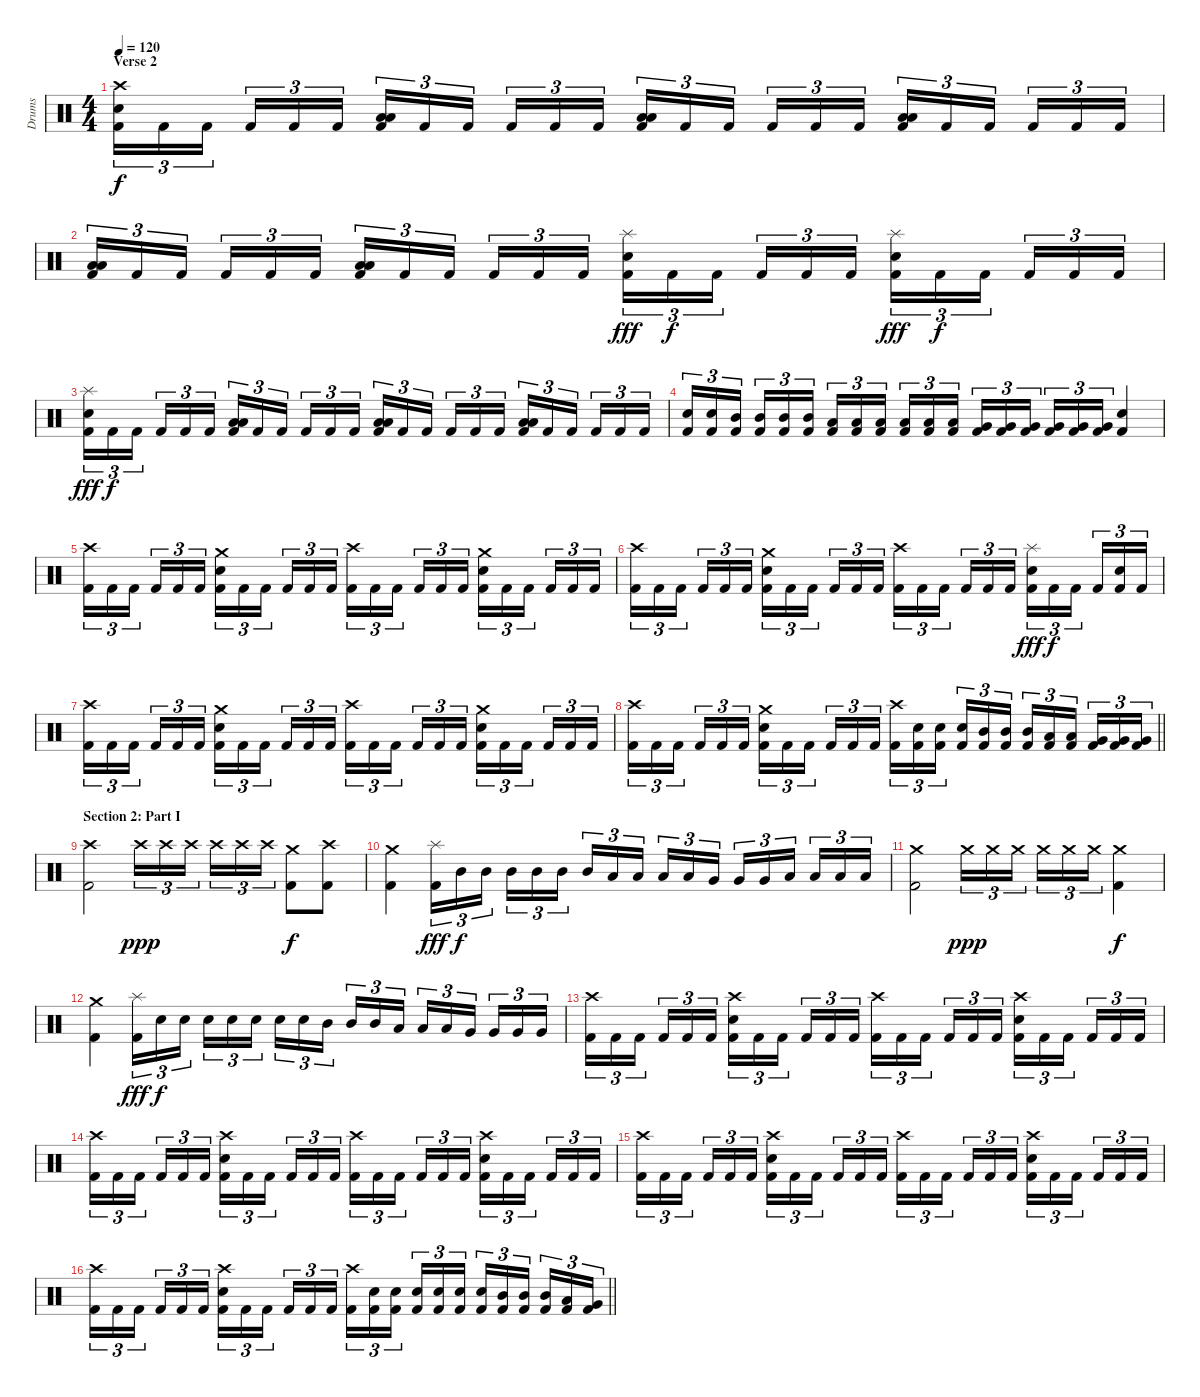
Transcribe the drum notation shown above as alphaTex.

\track ("Drums" "Drums") {instrument percussion}
\staff {score}
\articulation defaults
\ts (4 4)
\section ("" "Verse 2")
\tempo 120
\clef neutral
\ks c
("Crash high (hit)" "Electric Snare (hit)" "Kick (hit) 2").16{tu (3 2) dy f} "Kick (hit) 2".16{tu (3 2)} "Kick (hit) 2".16{tu (3 2) beam splitsecondary} "Kick (hit) 2".16{tu (3 2)} "Kick (hit) 2".16{tu (3 2)} "Kick (hit) 2".16{tu (3 2)} ("Low Tom (hit)" "Low Tom (hit)" "Kick (hit) 2").16{tu (3 2) bd 30} "Kick (hit) 2".16{tu (3 2)} "Kick (hit) 2".16{tu (3 2) beam splitsecondary} "Kick (hit) 2".16{tu (3 2)} "Kick (hit) 2".16{tu (3 2)} "Kick (hit) 2".16{tu (3 2)} ("Low Tom (hit)" "Low Tom (hit)" "Kick (hit) 2").16{tu (3 2) bd 30} "Kick (hit) 2".16{tu (3 2)} "Kick (hit) 2".16{tu (3 2) beam splitsecondary} "Kick (hit) 2".16{tu (3 2)} "Kick (hit) 2".16{tu (3 2)} "Kick (hit) 2".16{tu (3 2)} ("Low Tom (hit)" "Low Tom (hit)" "Kick (hit) 2").16{tu (3 2) bd 30} "Kick (hit) 2".16{tu (3 2)} "Kick (hit) 2".16{tu (3 2) beam splitsecondary} "Kick (hit) 2".16{tu (3 2)} "Kick (hit) 2".16{tu (3 2)} "Kick (hit) 2".16{tu (3 2)} |
("Low Tom (hit)" "Low Tom (hit)" "Kick (hit) 2").16{tu (3 2) bd 30} "Kick (hit) 2".16{tu (3 2)} "Kick (hit) 2".16{tu (3 2) beam splitsecondary} "Kick (hit) 2".16{tu (3 2)} "Kick (hit) 2".16{tu (3 2)} "Kick (hit) 2".16{tu (3 2)} ("Low Tom (hit)" "Low Tom (hit)" "Kick (hit) 2").16{tu (3 2) bd 30} "Kick (hit) 2".16{tu (3 2)} "Kick (hit) 2".16{tu (3 2) beam splitsecondary} "Kick (hit) 2".16{tu (3 2)} "Kick (hit) 2".16{tu (3 2)} "Kick (hit) 2".16{tu (3 2)} ("Splash (hit)" "Electric Snare (hit)" "Kick (hit) 2").16{tu (3 2) dy fff} "Kick (hit) 2".16{tu (3 2) dy f} "Kick (hit) 2".16{tu (3 2) beam splitsecondary} "Kick (hit) 2".16{tu (3 2)} "Kick (hit) 2".16{tu (3 2)} "Kick (hit) 2".16{tu (3 2)} ("Splash (hit)" "Electric Snare (hit)" "Kick (hit) 2").16{tu (3 2) dy fff} "Kick (hit) 2".16{tu (3 2) dy f} "Kick (hit) 2".16{tu (3 2) beam splitsecondary} "Kick (hit) 2".16{tu (3 2)} "Kick (hit) 2".16{tu (3 2)} "Kick (hit) 2".16{tu (3 2)} |
("Splash (hit)" "Electric Snare (hit)" "Kick (hit) 2").16{tu (3 2) dy fff} "Kick (hit) 2".16{tu (3 2) dy f} "Kick (hit) 2".16{tu (3 2) beam splitsecondary} "Kick (hit) 2".16{tu (3 2)} "Kick (hit) 2".16{tu (3 2)} "Kick (hit) 2".16{tu (3 2)} ("Low Tom (hit)" "Low Tom (hit)" "Kick (hit) 2").16{tu (3 2) bd 30} "Kick (hit) 2".16{tu (3 2)} "Kick (hit) 2".16{tu (3 2) beam splitsecondary} "Kick (hit) 2".16{tu (3 2)} "Kick (hit) 2".16{tu (3 2)} "Kick (hit) 2".16{tu (3 2)} ("Low Tom (hit)" "Low Tom (hit)" "Kick (hit) 2").16{tu (3 2) bd 30} "Kick (hit) 2".16{tu (3 2)} "Kick (hit) 2".16{tu (3 2) beam splitsecondary} "Kick (hit) 2".16{tu (3 2)} "Kick (hit) 2".16{tu (3 2)} "Kick (hit) 2".16{tu (3 2)} ("Low Tom (hit)" "Low Tom (hit)" "Kick (hit) 2").16{tu (3 2) bd 30} "Kick (hit) 2".16{tu (3 2)} "Kick (hit) 2".16{tu (3 2) beam splitsecondary} "Kick (hit) 2".16{tu (3 2)} "Kick (hit) 2".16{tu (3 2)} "Kick (hit) 2".16{tu (3 2)} |
("Electric Snare (hit)" "Kick (hit) 2").16{tu (3 2)} ("Electric Snare (hit)" "Kick (hit) 2").16{tu (3 2)} ("Mid Tom (hit)" "Kick (hit) 2").16{tu (3 2) beam splitsecondary} ("Mid Tom (hit)" "Kick (hit) 2").16{tu (3 2)} ("Mid Tom (hit)" "Kick (hit) 2").16{tu (3 2)} ("Mid Tom (hit)" "Kick (hit) 2").16{tu (3 2)} ("Low Tom (hit)" "Kick (hit) 2").16{tu (3 2)} ("Low Tom (hit)" "Kick (hit) 2").16{tu (3 2)} ("Low Tom (hit)" "Kick (hit) 2").16{tu (3 2) beam splitsecondary} ("Low Tom (hit)" "Kick (hit) 2").16{tu (3 2)} ("Low Tom (hit)" "Kick (hit) 2").16{tu (3 2)} ("Low Tom (hit)" "Kick (hit) 2").16{tu (3 2)} ("Very Low Tom (hit)" "Kick (hit) 2").16{tu (3 2)} ("Very Low Tom (hit)" "Kick (hit) 2").16{tu (3 2)} ("Very Low Tom (hit)" "Kick (hit) 2").16{tu (3 2) beam splitsecondary} ("Very Low Tom (hit)" "Kick (hit) 2").16{tu (3 2)} ("Very Low Tom (hit)" "Kick (hit) 2").16{tu (3 2)} ("Very Low Tom (hit)" "Kick (hit) 2").16{tu (3 2)} ("Electric Snare (hit)" "Kick (hit) 2").4 |
("Crash high (hit)" "Kick (hit) 2").16{tu (3 2)} "Kick (hit) 2".16{tu (3 2)} "Kick (hit) 2".16{tu (3 2) beam splitsecondary} "Kick (hit) 2".16{tu (3 2)} "Kick (hit) 2".16{tu (3 2)} "Kick (hit) 2".16{tu (3 2)} ("Crash medium (hit)" "Electric Snare (hit)" "Kick (hit) 2").16{tu (3 2)} "Kick (hit) 2".16{tu (3 2)} "Kick (hit) 2".16{tu (3 2) beam splitsecondary} "Kick (hit) 2".16{tu (3 2)} "Kick (hit) 2".16{tu (3 2)} "Kick (hit) 2".16{tu (3 2)} ("Crash high (hit)" "Kick (hit) 2").16{tu (3 2)} "Kick (hit) 2".16{tu (3 2)} "Kick (hit) 2".16{tu (3 2) beam splitsecondary} "Kick (hit) 2".16{tu (3 2)} "Kick (hit) 2".16{tu (3 2)} "Kick (hit) 2".16{tu (3 2)} ("Crash medium (hit)" "Electric Snare (hit)" "Kick (hit) 2").16{tu (3 2)} "Kick (hit) 2".16{tu (3 2)} "Kick (hit) 2".16{tu (3 2) beam splitsecondary} "Kick (hit) 2".16{tu (3 2)} "Kick (hit) 2".16{tu (3 2)} "Kick (hit) 2".16{tu (3 2)} |
("Crash high (hit)" "Kick (hit) 2").16{tu (3 2)} "Kick (hit) 2".16{tu (3 2)} "Kick (hit) 2".16{tu (3 2) beam splitsecondary} "Kick (hit) 2".16{tu (3 2)} "Kick (hit) 2".16{tu (3 2)} "Kick (hit) 2".16{tu (3 2)} ("Crash medium (hit)" "Electric Snare (hit)" "Kick (hit) 2").16{tu (3 2)} "Kick (hit) 2".16{tu (3 2)} "Kick (hit) 2".16{tu (3 2) beam splitsecondary} "Kick (hit) 2".16{tu (3 2)} "Kick (hit) 2".16{tu (3 2)} "Kick (hit) 2".16{tu (3 2)} ("Crash high (hit)" "Kick (hit) 2").16{tu (3 2)} "Kick (hit) 2".16{tu (3 2)} "Kick (hit) 2".16{tu (3 2) beam splitsecondary} "Kick (hit) 2".16{tu (3 2)} "Kick (hit) 2".16{tu (3 2)} "Kick (hit) 2".16{tu (3 2)} ("Splash (hit)" "Electric Snare (hit)" "Kick (hit) 2").16{tu (3 2) dy fff} "Kick (hit) 2".16{tu (3 2) dy f} "Kick (hit) 2".16{tu (3 2) beam splitsecondary} "Kick (hit) 2".16{tu (3 2)} ("Electric Snare (hit)" "Kick (hit) 2").16{tu (3 2)} "Kick (hit) 2".16{tu (3 2)} |
("Crash high (hit)" "Kick (hit) 2").16{tu (3 2)} "Kick (hit) 2".16{tu (3 2)} "Kick (hit) 2".16{tu (3 2) beam splitsecondary} "Kick (hit) 2".16{tu (3 2)} "Kick (hit) 2".16{tu (3 2)} "Kick (hit) 2".16{tu (3 2)} ("Crash medium (hit)" "Electric Snare (hit)" "Kick (hit) 2").16{tu (3 2)} "Kick (hit) 2".16{tu (3 2)} "Kick (hit) 2".16{tu (3 2) beam splitsecondary} "Kick (hit) 2".16{tu (3 2)} "Kick (hit) 2".16{tu (3 2)} "Kick (hit) 2".16{tu (3 2)} ("Crash high (hit)" "Kick (hit) 2").16{tu (3 2)} "Kick (hit) 2".16{tu (3 2)} "Kick (hit) 2".16{tu (3 2) beam splitsecondary} "Kick (hit) 2".16{tu (3 2)} "Kick (hit) 2".16{tu (3 2)} "Kick (hit) 2".16{tu (3 2)} ("Crash medium (hit)" "Electric Snare (hit)" "Kick (hit) 2").16{tu (3 2)} "Kick (hit) 2".16{tu (3 2)} "Kick (hit) 2".16{tu (3 2) beam splitsecondary} "Kick (hit) 2".16{tu (3 2)} "Kick (hit) 2".16{tu (3 2)} "Kick (hit) 2".16{tu (3 2)} |
\barLineRight lightlight
("Crash high (hit)" "Kick (hit) 2").16{tu (3 2)} "Kick (hit) 2".16{tu (3 2)} "Kick (hit) 2".16{tu (3 2) beam splitsecondary} "Kick (hit) 2".16{tu (3 2)} "Kick (hit) 2".16{tu (3 2)} "Kick (hit) 2".16{tu (3 2)} ("Crash medium (hit)" "Electric Snare (hit)" "Kick (hit) 2").16{tu (3 2)} "Kick (hit) 2".16{tu (3 2)} "Kick (hit) 2".16{tu (3 2) beam splitsecondary} "Kick (hit) 2".16{tu (3 2)} "Kick (hit) 2".16{tu (3 2)} "Kick (hit) 2".16{tu (3 2)} ("Crash high (hit)" "Kick (hit) 2").16{tu (3 2)} ("Electric Snare (hit)" "Kick (hit) 2").16{tu (3 2)} ("Electric Snare (hit)" "Kick (hit) 2").16{tu (3 2) beam splitsecondary} ("Electric Snare (hit)" "Kick (hit) 2").16{tu (3 2)} ("Mid Tom (hit)" "Kick (hit) 2").16{tu (3 2)} ("Mid Tom (hit)" "Kick (hit) 2").16{tu (3 2)} ("Mid Tom (hit)" "Kick (hit) 2").16{tu (3 2)} ("Low Tom (hit)" "Kick (hit) 2").16{tu (3 2)} ("Low Tom (hit)" "Kick (hit) 2").16{tu (3 2) beam splitsecondary} ("Very Low Tom (hit)" "Kick (hit) 2").16{tu (3 2)} ("Very Low Tom (hit)" "Kick (hit) 2").16{tu (3 2)} ("Very Low Tom (hit)" "Kick (hit) 2").16{tu (3 2)} |
\section ("" "Section 2: Part I")
("Crash high (hit)" "Kick (hit) 2").2 "Crash high (hit)".16{tu (3 2) dy ppp} "Crash high (hit)".16{tu (3 2)} "Crash high (hit)".16{tu (3 2) beam splitsecondary} "Crash high (hit)".16{tu (3 2)} "Crash high (hit)".16{tu (3 2)} "Crash high (hit)".16{tu (3 2)} ("Crash medium (hit)" "Kick (hit) 2").8{dy f} ("Crash high (hit)" "Kick (hit) 2").8 |
("Crash medium (hit)" "Kick (hit) 2").4 ("Splash (hit)" "Kick (hit) 2").16{tu (3 2) dy fff} "Mid Tom (hit)".16{tu (3 2) dy f} "Mid Tom (hit)".16{tu (3 2) beam splitsecondary} "Mid Tom (hit)".16{tu (3 2)} "Mid Tom (hit)".16{tu (3 2)} "Mid Tom (hit)".16{tu (3 2)} "Mid Tom (hit)".16{tu (3 2)} "Low Tom (hit)".16{tu (3 2)} "Low Tom (hit)".16{tu (3 2) beam splitsecondary} "Low Tom (hit)".16{tu (3 2)} "Low Tom (hit)".16{tu (3 2)} "Very Low Tom (hit)".16{tu (3 2)} "Very Low Tom (hit)".16{tu (3 2)} "Very Low Tom (hit)".16{tu (3 2)} "Low Floor Tom (hit)".16{tu (3 2) beam splitsecondary} "Low Floor Tom (hit)".16{tu (3 2)} "Low Floor Tom (hit)".16{tu (3 2)} "Low Floor Tom (hit)".16{tu (3 2)} |
("Crash medium (hit)" "Kick (hit) 2").2 "Crash medium (hit)".16{tu (3 2) dy ppp} "Crash medium (hit)".16{tu (3 2)} "Crash medium (hit)".16{tu (3 2) beam splitsecondary} "Crash medium (hit)".16{tu (3 2)} "Crash medium (hit)".16{tu (3 2)} "Crash medium (hit)".16{tu (3 2)} ("Crash medium (hit)" "Kick (hit) 2").4{dy f} |
("Crash medium (hit)" "Kick (hit) 2").4 ("Splash (hit)" "Kick (hit) 2").16{tu (3 2) dy fff} "Electric Snare (hit)".16{tu (3 2) dy f} "Electric Snare (hit)".16{tu (3 2) beam splitsecondary} "Electric Snare (hit)".16{tu (3 2)} "Electric Snare (hit)".16{tu (3 2)} "Electric Snare (hit)".16{tu (3 2)} "Electric Snare (hit)".16{tu (3 2)} "Electric Snare (hit)".16{tu (3 2)} "Mid Tom (hit)".16{tu (3 2) beam splitsecondary} "Mid Tom (hit)".16{tu (3 2)} "Mid Tom (hit)".16{tu (3 2)} "Low Tom (hit)".16{tu (3 2)} "Low Tom (hit)".16{tu (3 2)} "Low Tom (hit)".16{tu (3 2)} "Very Low Tom (hit)".16{tu (3 2) beam splitsecondary} "Very Low Tom (hit)".16{tu (3 2)} "Very Low Tom (hit)".16{tu (3 2)} "Very Low Tom (hit)".16{tu (3 2)} |
("Crash high (hit)" "Kick (hit) 2").16{tu (3 2)} "Kick (hit) 2".16{tu (3 2)} "Kick (hit) 2".16{tu (3 2) beam splitsecondary} "Kick (hit) 2".16{tu (3 2)} "Kick (hit) 2".16{tu (3 2)} "Kick (hit) 2".16{tu (3 2)} ("Crash high (hit)" "Electric Snare (hit)" "Kick (hit) 2").16{tu (3 2)} "Kick (hit) 2".16{tu (3 2)} "Kick (hit) 2".16{tu (3 2) beam splitsecondary} "Kick (hit) 2".16{tu (3 2)} "Kick (hit) 2".16{tu (3 2)} "Kick (hit) 2".16{tu (3 2)} ("Crash high (hit)" "Kick (hit) 2").16{tu (3 2)} "Kick (hit) 2".16{tu (3 2)} "Kick (hit) 2".16{tu (3 2) beam splitsecondary} "Kick (hit) 2".16{tu (3 2)} "Kick (hit) 2".16{tu (3 2)} "Kick (hit) 2".16{tu (3 2)} ("Crash high (hit)" "Electric Snare (hit)" "Kick (hit) 2").16{tu (3 2)} "Kick (hit) 2".16{tu (3 2)} "Kick (hit) 2".16{tu (3 2) beam splitsecondary} "Kick (hit) 2".16{tu (3 2)} "Kick (hit) 2".16{tu (3 2)} "Kick (hit) 2".16{tu (3 2)} |
("Crash high (hit)" "Kick (hit) 2").16{tu (3 2)} "Kick (hit) 2".16{tu (3 2)} "Kick (hit) 2".16{tu (3 2) beam splitsecondary} "Kick (hit) 2".16{tu (3 2)} "Kick (hit) 2".16{tu (3 2)} "Kick (hit) 2".16{tu (3 2)} ("Crash high (hit)" "Electric Snare (hit)" "Kick (hit) 2").16{tu (3 2)} "Kick (hit) 2".16{tu (3 2)} "Kick (hit) 2".16{tu (3 2) beam splitsecondary} "Kick (hit) 2".16{tu (3 2)} "Kick (hit) 2".16{tu (3 2)} "Kick (hit) 2".16{tu (3 2)} ("Crash high (hit)" "Kick (hit) 2").16{tu (3 2)} "Kick (hit) 2".16{tu (3 2)} "Kick (hit) 2".16{tu (3 2) beam splitsecondary} "Kick (hit) 2".16{tu (3 2)} "Kick (hit) 2".16{tu (3 2)} "Kick (hit) 2".16{tu (3 2)} ("Crash high (hit)" "Electric Snare (hit)" "Kick (hit) 2").16{tu (3 2)} "Kick (hit) 2".16{tu (3 2)} "Kick (hit) 2".16{tu (3 2) beam splitsecondary} "Kick (hit) 2".16{tu (3 2)} "Kick (hit) 2".16{tu (3 2)} "Kick (hit) 2".16{tu (3 2)} |
("Crash high (hit)" "Kick (hit) 2").16{tu (3 2)} "Kick (hit) 2".16{tu (3 2)} "Kick (hit) 2".16{tu (3 2) beam splitsecondary} "Kick (hit) 2".16{tu (3 2)} "Kick (hit) 2".16{tu (3 2)} "Kick (hit) 2".16{tu (3 2)} ("Crash high (hit)" "Electric Snare (hit)" "Kick (hit) 2").16{tu (3 2)} "Kick (hit) 2".16{tu (3 2)} "Kick (hit) 2".16{tu (3 2) beam splitsecondary} "Kick (hit) 2".16{tu (3 2)} "Kick (hit) 2".16{tu (3 2)} "Kick (hit) 2".16{tu (3 2)} ("Crash high (hit)" "Kick (hit) 2").16{tu (3 2)} "Kick (hit) 2".16{tu (3 2)} "Kick (hit) 2".16{tu (3 2) beam splitsecondary} "Kick (hit) 2".16{tu (3 2)} "Kick (hit) 2".16{tu (3 2)} "Kick (hit) 2".16{tu (3 2)} ("Crash high (hit)" "Electric Snare (hit)" "Kick (hit) 2").16{tu (3 2)} "Kick (hit) 2".16{tu (3 2)} "Kick (hit) 2".16{tu (3 2) beam splitsecondary} "Kick (hit) 2".16{tu (3 2)} "Kick (hit) 2".16{tu (3 2)} "Kick (hit) 2".16{tu (3 2)} |
\barLineRight lightlight
("Crash high (hit)" "Kick (hit) 2").16{tu (3 2)} "Kick (hit) 2".16{tu (3 2)} "Kick (hit) 2".16{tu (3 2) beam splitsecondary} "Kick (hit) 2".16{tu (3 2)} "Kick (hit) 2".16{tu (3 2)} "Kick (hit) 2".16{tu (3 2)} ("Crash high (hit)" "Electric Snare (hit)" "Kick (hit) 2").16{tu (3 2)} "Kick (hit) 2".16{tu (3 2)} "Kick (hit) 2".16{tu (3 2) beam splitsecondary} "Kick (hit) 2".16{tu (3 2)} "Kick (hit) 2".16{tu (3 2)} "Kick (hit) 2".16{tu (3 2)} ("Crash high (hit)" "Kick (hit) 2").16{tu (3 2)} ("Electric Snare (hit)" "Kick (hit) 2").16{tu (3 2)} ("Electric Snare (hit)" "Kick (hit) 2").16{tu (3 2) beam splitsecondary} ("Electric Snare (hit)" "Kick (hit) 2").16{tu (3 2)} ("Electric Snare (hit)" "Kick (hit) 2").16{tu (3 2)} ("Electric Snare (hit)" "Kick (hit) 2").16{tu (3 2)} ("Electric Snare (hit)" "Kick (hit) 2").16{tu (3 2)} ("Mid Tom (hit)" "Kick (hit) 2").16{tu (3 2)} ("Mid Tom (hit)" "Kick (hit) 2").16{tu (3 2) beam splitsecondary} ("Mid Tom (hit)" "Kick (hit) 2").16{tu (3 2)} ("Low Tom (hit)" "Kick (hit) 2").16{tu (3 2)} ("Very Low Tom (hit)" "Kick (hit) 2").16{tu (3 2)}
